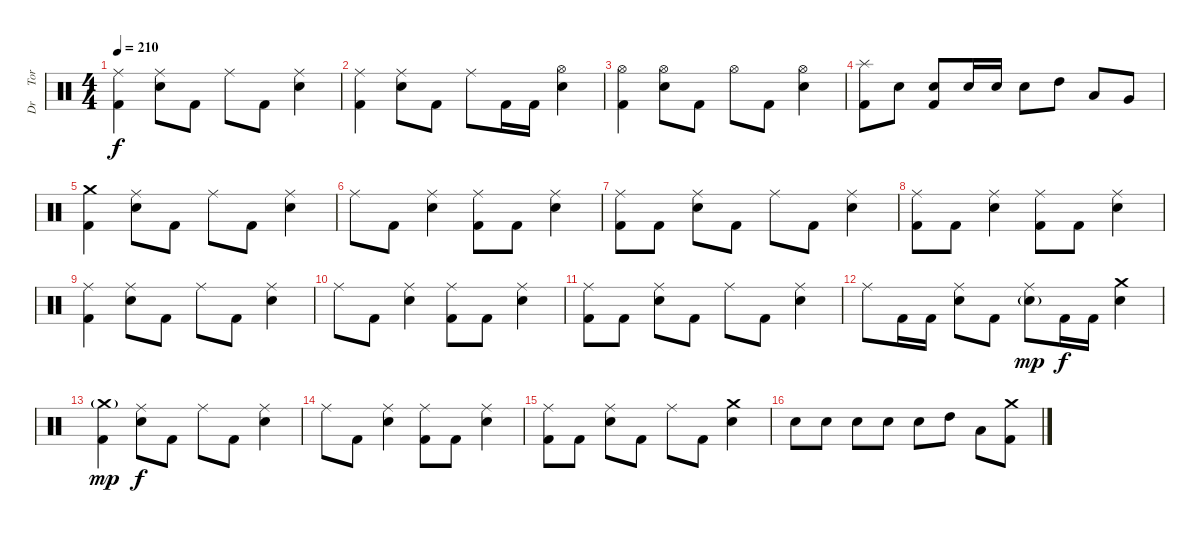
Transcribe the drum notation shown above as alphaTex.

\track ("Dr     Tora" "Dr     Tor") {instrument percussion}
\staff {score}
\articulation defaults
\ts (4 4)
\tempo 210
\clef neutral
\ks c
("Ride (middle)" "Kick (hit) 2").4{dy f} ("Ride (middle)" "Electric Snare (hit)").8 "Kick (hit) 2".8 "Ride (middle)".8 "Kick (hit) 2".8 ("Ride (middle)" "Electric Snare (hit)").4 |
("Ride (middle)" "Kick (hit) 2").4 ("Ride (middle)" "Electric Snare (hit)").8 "Kick (hit) 2".8 "Ride (middle)".8 "Kick (hit) 2".16 "Kick (hit) 2".16 ("Hi-Hat (open)" "Electric Snare (hit)").4 |
("Hi-Hat (open)" "Kick (hit) 2").4 ("Hi-Hat (open)" "Electric Snare (hit)").8 "Kick (hit) 2".8 "Hi-Hat (open)".8 "Kick (hit) 2".8 ("Hi-Hat (open)" "Electric Snare (hit)").4 |
("Splash (hit)" "Kick (hit) 2").8 "Electric Snare (hit)".8 ("Electric Snare (hit)" "Kick (hit) 2").8 "Electric Snare (hit)".16 "Electric Snare (hit)".16 "Electric Snare (hit)".8 "High Tom (hit)".8 "Low Tom (hit)".8 "Very Low Tom (hit)".8 |
("Crash medium (hit)" "Kick (hit) 2").4 ("Ride (middle)" "Electric Snare (hit)").8 "Kick (hit) 2".8 "Ride (middle)".8 "Kick (hit) 2".8 ("Ride (middle)" "Electric Snare (hit)").4 |
"Ride (middle)".8 "Kick (hit) 2".8 ("Ride (middle)" "Electric Snare (hit)").4 ("Ride (middle)" "Kick (hit) 2").8 "Kick (hit) 2".8 ("Ride (middle)" "Electric Snare (hit)").4 |
("Ride (middle)" "Kick (hit) 2").8 "Kick (hit) 2".8 ("Ride (middle)" "Electric Snare (hit)").8 "Kick (hit) 2".8 "Ride (middle)".8 "Kick (hit) 2".8 ("Ride (middle)" "Electric Snare (hit)").4 |
("Ride (middle)" "Kick (hit) 2").8 "Kick (hit) 2".8 ("Ride (middle)" "Electric Snare (hit)").4 ("Ride (middle)" "Kick (hit) 2").8 "Kick (hit) 2".8 ("Ride (middle)" "Electric Snare (hit)").4 |
("Ride (middle)" "Kick (hit) 2").4 ("Ride (middle)" "Electric Snare (hit)").8 "Kick (hit) 2".8 "Ride (middle)".8 "Kick (hit) 2".8 ("Ride (middle)" "Electric Snare (hit)").4 |
"Ride (middle)".8 "Kick (hit) 2".8 ("Ride (middle)" "Electric Snare (hit)").4 ("Ride (middle)" "Kick (hit) 2").8 "Kick (hit) 2".8 ("Ride (middle)" "Electric Snare (hit)").4 |
("Ride (middle)" "Kick (hit) 2").8 "Kick (hit) 2".8 ("Ride (middle)" "Electric Snare (hit)").8 "Kick (hit) 2".8 "Ride (middle)".8 "Kick (hit) 2".8 ("Ride (middle)" "Electric Snare (hit)").4 |
"Ride (middle)".8 "Kick (hit) 2".16 "Kick (hit) 2".16 ("Ride (middle)" "Electric Snare (hit)").8 "Kick (hit) 2".8 ("Ride (middle)" "Electric Snare (hit)"{g}).8{dy mp} "Kick (hit) 2".16{dy f} "Kick (hit) 2".16 ("Crash medium (hit)" "Electric Snare (hit)").4 |
("Crash medium (hit)"{g} "Kick (hit) 2").4{dy mp} ("Ride (middle)" "Electric Snare (hit)").8{dy f} "Kick (hit) 2".8 "Ride (middle)".8 "Kick (hit) 2".8 ("Ride (middle)" "Electric Snare (hit)").4 |
"Ride (middle)".8 "Kick (hit) 2".8 ("Ride (middle)" "Electric Snare (hit)").4 ("Ride (middle)" "Kick (hit) 2").8 "Kick (hit) 2".8 ("Ride (middle)" "Electric Snare (hit)").4 |
("Ride (middle)" "Kick (hit) 2").8 "Kick (hit) 2".8 ("Ride (middle)" "Electric Snare (hit)").8 "Kick (hit) 2".8 "Ride (middle)".8 "Kick (hit) 2".8 ("Crash medium (hit)" "Electric Snare (hit)").4 |
"Electric Snare (hit)".8 "Electric Snare (hit)".8 "Electric Snare (hit)".8 "Electric Snare (hit)".8 "Electric Snare (hit)".8 "High Tom (hit)".8 "Low Tom (hit)".8 ("Crash medium (hit)" "Kick (hit) 2").8
